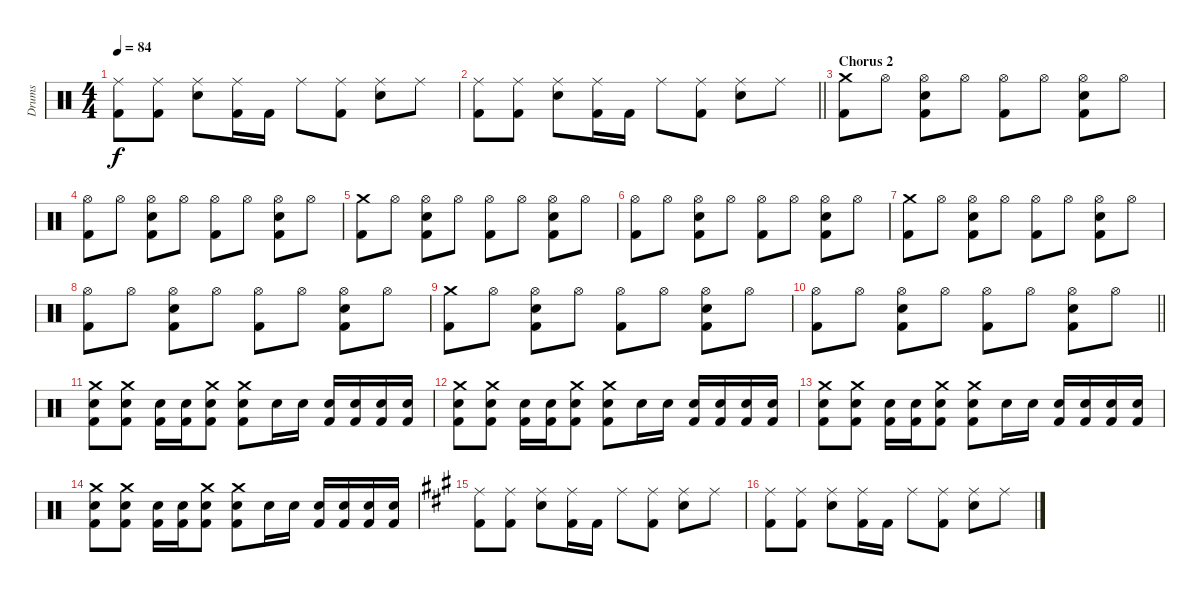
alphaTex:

\track ("Drums" "Drums") {instrument percussion}
\staff {score}
\articulation defaults
\ts (4 4)
\tempo 84
\clef neutral
\ks c
("Ride (middle)" "Kick (hit) 2").8{dy f} ("Ride (middle)" "Kick (hit) 2").8 ("Ride (middle)" "Electric Snare (hit)").8 ("Ride (middle)" "Kick (hit) 2").16 "Kick (hit) 2".16 "Ride (middle)".8 ("Ride (middle)" "Kick (hit) 2").8 ("Ride (middle)" "Electric Snare (hit)").8 "Ride (middle)".8 |
\barLineRight lightlight
("Ride (middle)" "Kick (hit) 2").8 ("Ride (middle)" "Kick (hit) 2").8 ("Ride (middle)" "Electric Snare (hit)").8 ("Ride (middle)" "Kick (hit) 2").16 "Kick (hit) 2".16 "Ride (middle)".8 ("Ride (middle)" "Kick (hit) 2").8 ("Ride (middle)" "Electric Snare (hit)").8 "Ride (middle)".8 |
\section ("" "Chorus 2")
("Crash medium (hit)" "Kick (hit) 2").8 "Hi-Hat (open)".8 ("Hi-Hat (open)" "Electric Snare (hit)" "Kick (hit) 2").8 "Hi-Hat (open)".8 ("Hi-Hat (open)" "Kick (hit) 2").8 "Hi-Hat (open)".8 ("Hi-Hat (open)" "Electric Snare (hit)" "Kick (hit) 2").8 "Hi-Hat (open)".8 |
("Hi-Hat (open)" "Kick (hit) 2").8 "Hi-Hat (open)".8 ("Hi-Hat (open)" "Electric Snare (hit)" "Kick (hit) 2").8 "Hi-Hat (open)".8 ("Hi-Hat (open)" "Kick (hit) 2").8 "Hi-Hat (open)".8 ("Hi-Hat (open)" "Electric Snare (hit)" "Kick (hit) 2").8 "Hi-Hat (open)".8 |
("Crash medium (hit)" "Kick (hit) 2").8 "Hi-Hat (open)".8 ("Hi-Hat (open)" "Electric Snare (hit)" "Kick (hit) 2").8 "Hi-Hat (open)".8 ("Hi-Hat (open)" "Kick (hit) 2").8 "Hi-Hat (open)".8 ("Hi-Hat (open)" "Electric Snare (hit)" "Kick (hit) 2").8 "Hi-Hat (open)".8 |
("Hi-Hat (open)" "Kick (hit) 2").8 "Hi-Hat (open)".8 ("Hi-Hat (open)" "Electric Snare (hit)" "Kick (hit) 2").8 "Hi-Hat (open)".8 ("Hi-Hat (open)" "Kick (hit) 2").8 "Hi-Hat (open)".8 ("Hi-Hat (open)" "Electric Snare (hit)" "Kick (hit) 2").8 "Hi-Hat (open)".8 |
("Crash medium (hit)" "Kick (hit) 2").8 "Hi-Hat (open)".8 ("Hi-Hat (open)" "Electric Snare (hit)" "Kick (hit) 2").8 "Hi-Hat (open)".8 ("Hi-Hat (open)" "Kick (hit) 2").8 "Hi-Hat (open)".8 ("Hi-Hat (open)" "Electric Snare (hit)" "Kick (hit) 2").8 "Hi-Hat (open)".8 |
("Hi-Hat (open)" "Kick (hit) 2").8 "Hi-Hat (open)".8 ("Hi-Hat (open)" "Electric Snare (hit)" "Kick (hit) 2").8 "Hi-Hat (open)".8 ("Hi-Hat (open)" "Kick (hit) 2").8 "Hi-Hat (open)".8 ("Hi-Hat (open)" "Electric Snare (hit)" "Kick (hit) 2").8 "Hi-Hat (open)".8 |
("Crash medium (hit)" "Kick (hit) 2").8 "Hi-Hat (open)".8 ("Hi-Hat (open)" "Electric Snare (hit)" "Kick (hit) 2").8 "Hi-Hat (open)".8 ("Hi-Hat (open)" "Kick (hit) 2").8 "Hi-Hat (open)".8 ("Hi-Hat (open)" "Electric Snare (hit)" "Kick (hit) 2").8 "Hi-Hat (open)".8 |
\barLineRight lightlight
("Hi-Hat (open)" "Kick (hit) 2").8 "Hi-Hat (open)".8 ("Hi-Hat (open)" "Electric Snare (hit)" "Kick (hit) 2").8 "Hi-Hat (open)".8 ("Hi-Hat (open)" "Kick (hit) 2").8 "Hi-Hat (open)".8 ("Hi-Hat (open)" "Electric Snare (hit)" "Kick (hit) 2").8 "Hi-Hat (open)".8 |
("Crash medium (hit)" "Electric Snare (hit)" "Kick (hit) 2").8 ("Crash medium (hit)" "Electric Snare (hit)" "Kick (hit) 2").8 ("Electric Snare (hit)" "Kick (hit) 2").16 ("Electric Snare (hit)" "Kick (hit) 2").16 ("Crash medium (hit)" "Electric Snare (hit)" "Kick (hit) 2").8 ("Crash medium (hit)" "Electric Snare (hit)" "Kick (hit) 2").8 "Electric Snare (hit)".16 "Electric Snare (hit)".16 ("Electric Snare (hit)" "Kick (hit) 2").16 ("Electric Snare (hit)" "Kick (hit) 2").16 ("Electric Snare (hit)" "Kick (hit) 2").16 ("Electric Snare (hit)" "Kick (hit) 2").16 |
("Crash medium (hit)" "Electric Snare (hit)" "Kick (hit) 2").8 ("Crash medium (hit)" "Electric Snare (hit)" "Kick (hit) 2").8 ("Electric Snare (hit)" "Kick (hit) 2").16 ("Electric Snare (hit)" "Kick (hit) 2").16 ("Crash medium (hit)" "Electric Snare (hit)" "Kick (hit) 2").8 ("Crash medium (hit)" "Electric Snare (hit)" "Kick (hit) 2").8 "Electric Snare (hit)".16 "Electric Snare (hit)".16 ("Electric Snare (hit)" "Kick (hit) 2").16 ("Electric Snare (hit)" "Kick (hit) 2").16 ("Electric Snare (hit)" "Kick (hit) 2").16 ("Electric Snare (hit)" "Kick (hit) 2").16 |
("Crash medium (hit)" "Electric Snare (hit)" "Kick (hit) 2").8 ("Crash medium (hit)" "Electric Snare (hit)" "Kick (hit) 2").8 ("Electric Snare (hit)" "Kick (hit) 2").16 ("Electric Snare (hit)" "Kick (hit) 2").16 ("Crash medium (hit)" "Electric Snare (hit)" "Kick (hit) 2").8 ("Crash medium (hit)" "Electric Snare (hit)" "Kick (hit) 2").8 "Electric Snare (hit)".16 "Electric Snare (hit)".16 ("Electric Snare (hit)" "Kick (hit) 2").16 ("Electric Snare (hit)" "Kick (hit) 2").16 ("Electric Snare (hit)" "Kick (hit) 2").16 ("Electric Snare (hit)" "Kick (hit) 2").16 |
("Crash medium (hit)" "Electric Snare (hit)" "Kick (hit) 2").8 ("Crash medium (hit)" "Electric Snare (hit)" "Kick (hit) 2").8 ("Electric Snare (hit)" "Kick (hit) 2").16 ("Electric Snare (hit)" "Kick (hit) 2").16 ("Crash medium (hit)" "Electric Snare (hit)" "Kick (hit) 2").8 ("Crash medium (hit)" "Electric Snare (hit)" "Kick (hit) 2").8 "Electric Snare (hit)".16 "Electric Snare (hit)".16 ("Electric Snare (hit)" "Kick (hit) 2").16 ("Electric Snare (hit)" "Kick (hit) 2").16 ("Electric Snare (hit)" "Kick (hit) 2").16 ("Electric Snare (hit)" "Kick (hit) 2").16 |
\ks a
("Ride (middle)" "Kick (hit) 2").8 ("Ride (middle)" "Kick (hit) 2").8 ("Ride (middle)" "Electric Snare (hit)").8 ("Ride (middle)" "Kick (hit) 2").16 "Kick (hit) 2".16 "Ride (middle)".8 ("Ride (middle)" "Kick (hit) 2").8 ("Ride (middle)" "Electric Snare (hit)").8 "Ride (middle)".8 |
("Ride (middle)" "Kick (hit) 2").8 ("Ride (middle)" "Kick (hit) 2").8 ("Ride (middle)" "Electric Snare (hit)").8 ("Ride (middle)" "Kick (hit) 2").16 "Kick (hit) 2".16 "Ride (middle)".8 ("Ride (middle)" "Kick (hit) 2").8 ("Ride (middle)" "Electric Snare (hit)").8 "Ride (middle)".8
